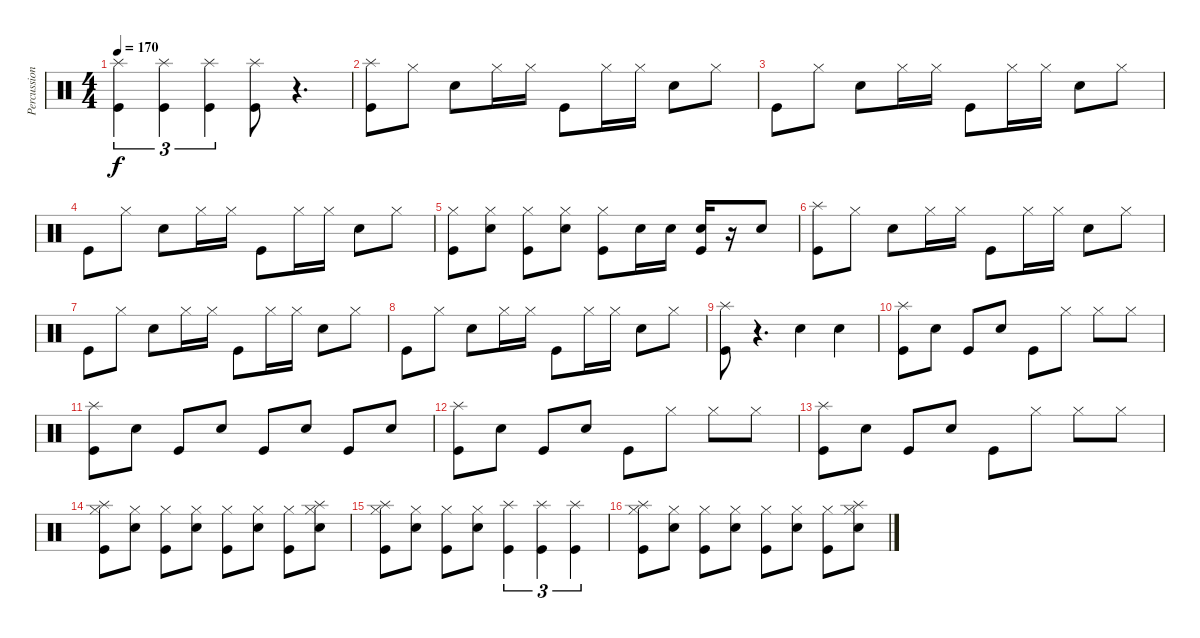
\track ("Percussion" "Percussion") {instrument percussion}
\staff {score}
\articulation defaults
\ts (4 4)
\tempo 170
\clef neutral
\ks c
("Splash (hit)" "Kick (hit)").4{tu (3 2) dy f} ("Splash (hit)" "Kick (hit)").4{tu (3 2)} ("Splash (hit)" "Kick (hit)").4{tu (3 2)} ("Splash (hit)" "Kick (hit)").8 r.4{d} |
("Splash (hit)" "Kick (hit)").8 "Hi-Hat (closed)".8 "Electric Snare (hit)".8 "Hi-Hat (closed)".16 "Hi-Hat (closed)".16 "Kick (hit)".8 "Hi-Hat (closed)".16 "Hi-Hat (closed)".16 "Electric Snare (hit)".8 "Hi-Hat (closed)".8 |
"Kick (hit)".8 "Hi-Hat (closed)".8 "Electric Snare (hit)".8 "Hi-Hat (closed)".16 "Hi-Hat (closed)".16 "Kick (hit)".8 "Hi-Hat (closed)".16 "Hi-Hat (closed)".16 "Electric Snare (hit)".8 "Hi-Hat (closed)".8 |
"Kick (hit)".8 "Hi-Hat (closed)".8 "Electric Snare (hit)".8 "Hi-Hat (closed)".16 "Hi-Hat (closed)".16 "Kick (hit)".8 "Hi-Hat (closed)".16 "Hi-Hat (closed)".16 "Electric Snare (hit)".8 "Hi-Hat (closed)".8 |
("Hi-Hat (closed)" "Kick (hit)").8 ("Hi-Hat (closed)" "Electric Snare (hit)").8 ("Hi-Hat (closed)" "Kick (hit)").8 ("Hi-Hat (closed)" "Electric Snare (hit)").8 ("Hi-Hat (closed)" "Kick (hit)").8 "Electric Snare (hit)".16 "Electric Snare (hit)".16 ("Electric Snare (hit)" "Kick (hit)").16 r.16 "Electric Snare (hit)".8 |
("Splash (hit)" "Kick (hit)").8 "Hi-Hat (closed)".8 "Electric Snare (hit)".8 "Hi-Hat (closed)".16 "Hi-Hat (closed)".16 "Kick (hit)".8 "Hi-Hat (closed)".16 "Hi-Hat (closed)".16 "Electric Snare (hit)".8 "Hi-Hat (closed)".8 |
"Kick (hit)".8 "Hi-Hat (closed)".8 "Electric Snare (hit)".8 "Hi-Hat (closed)".16 "Hi-Hat (closed)".16 "Kick (hit)".8 "Hi-Hat (closed)".16 "Hi-Hat (closed)".16 "Electric Snare (hit)".8 "Hi-Hat (closed)".8 |
"Kick (hit)".8 "Hi-Hat (closed)".8 "Electric Snare (hit)".8 "Hi-Hat (closed)".16 "Hi-Hat (closed)".16 "Kick (hit)".8 "Hi-Hat (closed)".16 "Hi-Hat (closed)".16 "Electric Snare (hit)".8 "Hi-Hat (closed)".8 |
("Splash (hit)" "Kick (hit)").8 r.4{d} "Electric Snare (hit)".4 "Electric Snare (hit)".4 |
("Splash (hit)" "Kick (hit)").8 "Electric Snare (hit)".8 "Kick (hit)".8 "Electric Snare (hit)".8 "Kick (hit)".8 "Hi-Hat (closed)".8 "Hi-Hat (closed)".8 "Hi-Hat (closed)".8 |
("Splash (hit)" "Kick (hit)").8 "Electric Snare (hit)".8 "Kick (hit)".8 "Electric Snare (hit)".8 "Kick (hit)".8 "Electric Snare (hit)".8 "Kick (hit)".8 "Electric Snare (hit)".8 |
("Splash (hit)" "Kick (hit)").8 "Electric Snare (hit)".8 "Kick (hit)".8 "Electric Snare (hit)".8 "Kick (hit)".8 "Hi-Hat (closed)".8 "Hi-Hat (closed)".8 "Hi-Hat (closed)".8 |
("Splash (hit)" "Kick (hit)").8 "Electric Snare (hit)".8 "Kick (hit)".8 "Electric Snare (hit)".8 "Kick (hit)".8 "Hi-Hat (closed)".8 "Hi-Hat (closed)".8 "Hi-Hat (closed)".8 |
("Splash (hit)" "Hi-Hat (closed)" "Kick (hit)").8 ("Hi-Hat (closed)" "Electric Snare (hit)").8 ("Hi-Hat (closed)" "Kick (hit)").8 ("Hi-Hat (closed)" "Electric Snare (hit)").8 ("Hi-Hat (closed)" "Kick (hit)").8 ("Hi-Hat (closed)" "Electric Snare (hit)").8 ("Hi-Hat (closed)" "Kick (hit)").8 ("Splash (hit)" "Hi-Hat (closed)" "Electric Snare (hit)").8 |
("Splash (hit)" "Hi-Hat (closed)" "Kick (hit)").8 ("Hi-Hat (closed)" "Electric Snare (hit)").8 ("Hi-Hat (closed)" "Kick (hit)").8 ("Hi-Hat (closed)" "Electric Snare (hit)").8 ("Splash (hit)" "Kick (hit)").4{tu (3 2)} ("Splash (hit)" "Kick (hit)").4{tu (3 2)} ("Splash (hit)" "Kick (hit)").4{tu (3 2)} |
("Splash (hit)" "Hi-Hat (closed)" "Kick (hit)").8 ("Hi-Hat (closed)" "Electric Snare (hit)").8 ("Hi-Hat (closed)" "Kick (hit)").8 ("Hi-Hat (closed)" "Electric Snare (hit)").8 ("Hi-Hat (closed)" "Kick (hit)").8 ("Hi-Hat (closed)" "Electric Snare (hit)").8 ("Hi-Hat (closed)" "Kick (hit)").8 ("Splash (hit)" "Hi-Hat (closed)" "Electric Snare (hit)").8
